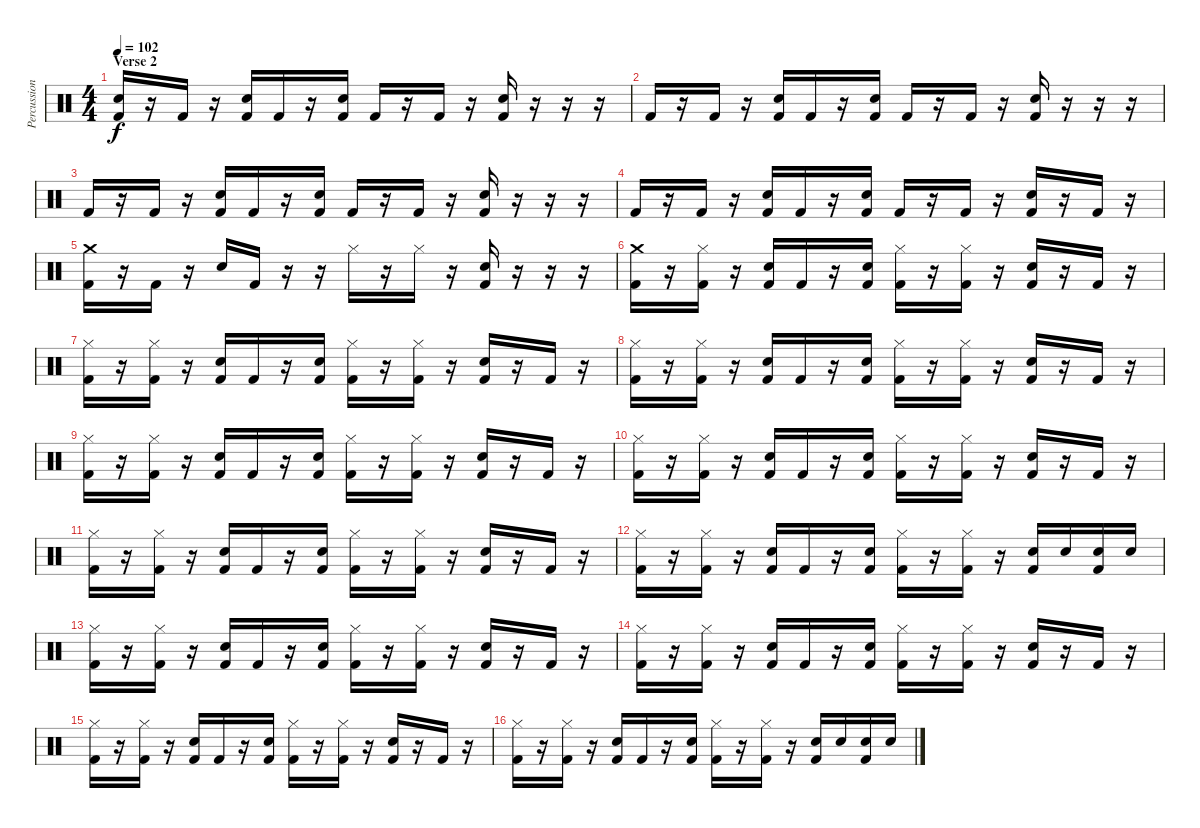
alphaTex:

\track ("Percussion" "Percussion") {instrument percussion}
\staff {score}
\articulation defaults
\ts (4 4)
\section ("" "Verse 2")
\tempo 102
\clef neutral
\ks c
("Snare (hit) 2" "Kick (hit) 2").16{dy f} r.16 "Kick (hit) 2".16 r.16 ("Snare (hit) 2" "Kick (hit) 2").16 "Kick (hit) 2".16 r.16 ("Snare (hit) 2" "Kick (hit) 2").16 "Kick (hit) 2".16 r.16 "Kick (hit) 2".16 r.16 ("Snare (hit) 2" "Kick (hit) 2").16 r.16 r.16 r.16 |
"Kick (hit) 2".16 r.16 "Kick (hit) 2".16 r.16 ("Snare (hit) 2" "Kick (hit) 2").16 "Kick (hit) 2".16 r.16 ("Snare (hit) 2" "Kick (hit) 2").16 "Kick (hit) 2".16 r.16 "Kick (hit) 2".16 r.16 ("Snare (hit) 2" "Kick (hit) 2").16 r.16 r.16 r.16 |
"Kick (hit) 2".16 r.16 "Kick (hit) 2".16 r.16 ("Snare (hit) 2" "Kick (hit) 2").16 "Kick (hit) 2".16 r.16 ("Snare (hit) 2" "Kick (hit) 2").16 "Kick (hit) 2".16 r.16 "Kick (hit) 2".16 r.16 ("Snare (hit) 2" "Kick (hit) 2").16 r.16 r.16 r.16 |
"Kick (hit) 2".16 r.16 "Kick (hit) 2".16 r.16 ("Snare (hit) 2" "Kick (hit) 2").16 "Kick (hit) 2".16 r.16 ("Snare (hit) 2" "Kick (hit) 2").16 "Kick (hit) 2".16 r.16 "Kick (hit) 2".16 r.16 ("Snare (hit) 2" "Kick (hit) 2").16 r.16 "Kick (hit) 2".16 r.16 |
("Crash medium (hit)" "Kick (hit) 2").16 r.16 "Kick (hit) 2".16 r.16 "Snare (hit) 2".16 "Kick (hit) 2".16 r.16 r.16 "Hi-Hat (closed)".16 r.16 "Hi-Hat (closed)".16 r.16 ("Snare (hit) 2" "Kick (hit) 2").16 r.16 r.16 r.16 |
("Crash medium (hit)" "Kick (hit) 2").16 r.16 ("Hi-Hat (closed)" "Kick (hit) 2").16 r.16 ("Snare (hit) 2" "Kick (hit) 2").16 "Kick (hit) 2".16 r.16 ("Snare (hit) 2" "Kick (hit) 2").16 ("Hi-Hat (closed)" "Kick (hit) 2").16 r.16 ("Hi-Hat (closed)" "Kick (hit) 2").16 r.16 ("Snare (hit) 2" "Kick (hit) 2").16 r.16 "Kick (hit) 2".16 r.16 |
("Hi-Hat (closed)" "Kick (hit) 2").16 r.16 ("Hi-Hat (closed)" "Kick (hit) 2").16 r.16 ("Snare (hit) 2" "Kick (hit) 2").16 "Kick (hit) 2".16 r.16 ("Snare (hit) 2" "Kick (hit) 2").16 ("Hi-Hat (closed)" "Kick (hit) 2").16 r.16 ("Hi-Hat (closed)" "Kick (hit) 2").16 r.16 ("Snare (hit) 2" "Kick (hit) 2").16 r.16 "Kick (hit) 2".16 r.16 |
("Hi-Hat (closed)" "Kick (hit) 2").16 r.16 ("Hi-Hat (closed)" "Kick (hit) 2").16 r.16 ("Snare (hit) 2" "Kick (hit) 2").16 "Kick (hit) 2".16 r.16 ("Snare (hit) 2" "Kick (hit) 2").16 ("Hi-Hat (closed)" "Kick (hit) 2").16 r.16 ("Hi-Hat (closed)" "Kick (hit) 2").16 r.16 ("Snare (hit) 2" "Kick (hit) 2").16 r.16 "Kick (hit) 2".16 r.16 |
("Hi-Hat (closed)" "Kick (hit) 2").16 r.16 ("Hi-Hat (closed)" "Kick (hit) 2").16 r.16 ("Snare (hit) 2" "Kick (hit) 2").16 "Kick (hit) 2".16 r.16 ("Snare (hit) 2" "Kick (hit) 2").16 ("Hi-Hat (closed)" "Kick (hit) 2").16 r.16 ("Hi-Hat (closed)" "Kick (hit) 2").16 r.16 ("Snare (hit) 2" "Kick (hit) 2").16 r.16 "Kick (hit) 2".16 r.16 |
("Hi-Hat (closed)" "Kick (hit) 2").16 r.16 ("Hi-Hat (closed)" "Kick (hit) 2").16 r.16 ("Snare (hit) 2" "Kick (hit) 2").16 "Kick (hit) 2".16 r.16 ("Snare (hit) 2" "Kick (hit) 2").16 ("Hi-Hat (closed)" "Kick (hit) 2").16 r.16 ("Hi-Hat (closed)" "Kick (hit) 2").16 r.16 ("Snare (hit) 2" "Kick (hit) 2").16 r.16 "Kick (hit) 2".16 r.16 |
("Hi-Hat (closed)" "Kick (hit) 2").16 r.16 ("Hi-Hat (closed)" "Kick (hit) 2").16 r.16 ("Snare (hit) 2" "Kick (hit) 2").16 "Kick (hit) 2".16 r.16 ("Snare (hit) 2" "Kick (hit) 2").16 ("Hi-Hat (closed)" "Kick (hit) 2").16 r.16 ("Hi-Hat (closed)" "Kick (hit) 2").16 r.16 ("Snare (hit) 2" "Kick (hit) 2").16 r.16 "Kick (hit) 2".16 r.16 |
("Hi-Hat (closed)" "Kick (hit) 2").16 r.16 ("Hi-Hat (closed)" "Kick (hit) 2").16 r.16 ("Snare (hit) 2" "Kick (hit) 2").16 "Kick (hit) 2".16 r.16 ("Snare (hit) 2" "Kick (hit) 2").16 ("Hi-Hat (closed)" "Kick (hit) 2").16 r.16 ("Hi-Hat (closed)" "Kick (hit) 2").16 r.16 ("Snare (hit) 2" "Kick (hit) 2").16 "Snare (hit) 2".16 ("Snare (hit) 2" "Kick (hit) 2").16 "Snare (hit) 2".16 |
("Hi-Hat (closed)" "Kick (hit) 2").16 r.16 ("Hi-Hat (closed)" "Kick (hit) 2").16 r.16 ("Snare (hit) 2" "Kick (hit) 2").16 "Kick (hit) 2".16 r.16 ("Snare (hit) 2" "Kick (hit) 2").16 ("Hi-Hat (closed)" "Kick (hit) 2").16 r.16 ("Hi-Hat (closed)" "Kick (hit) 2").16 r.16 ("Snare (hit) 2" "Kick (hit) 2").16 r.16 "Kick (hit) 2".16 r.16 |
("Hi-Hat (closed)" "Kick (hit) 2").16 r.16 ("Hi-Hat (closed)" "Kick (hit) 2").16 r.16 ("Snare (hit) 2" "Kick (hit) 2").16 "Kick (hit) 2".16 r.16 ("Snare (hit) 2" "Kick (hit) 2").16 ("Hi-Hat (closed)" "Kick (hit) 2").16 r.16 ("Hi-Hat (closed)" "Kick (hit) 2").16 r.16 ("Snare (hit) 2" "Kick (hit) 2").16 r.16 "Kick (hit) 2".16 r.16 |
("Hi-Hat (closed)" "Kick (hit) 2").16 r.16 ("Hi-Hat (closed)" "Kick (hit) 2").16 r.16 ("Snare (hit) 2" "Kick (hit) 2").16 "Kick (hit) 2".16 r.16 ("Snare (hit) 2" "Kick (hit) 2").16 ("Hi-Hat (closed)" "Kick (hit) 2").16 r.16 ("Hi-Hat (closed)" "Kick (hit) 2").16 r.16 ("Snare (hit) 2" "Kick (hit) 2").16 r.16 "Kick (hit) 2".16 r.16 |
("Hi-Hat (closed)" "Kick (hit) 2").16 r.16 ("Hi-Hat (closed)" "Kick (hit) 2").16 r.16 ("Snare (hit) 2" "Kick (hit) 2").16 "Kick (hit) 2".16 r.16 ("Snare (hit) 2" "Kick (hit) 2").16 ("Hi-Hat (closed)" "Kick (hit) 2").16 r.16 ("Hi-Hat (closed)" "Kick (hit) 2").16 r.16 ("Snare (hit) 2" "Kick (hit) 2").16 "Snare (hit) 2".16 ("Snare (hit) 2" "Kick (hit) 2").16 "Snare (hit) 2".16
